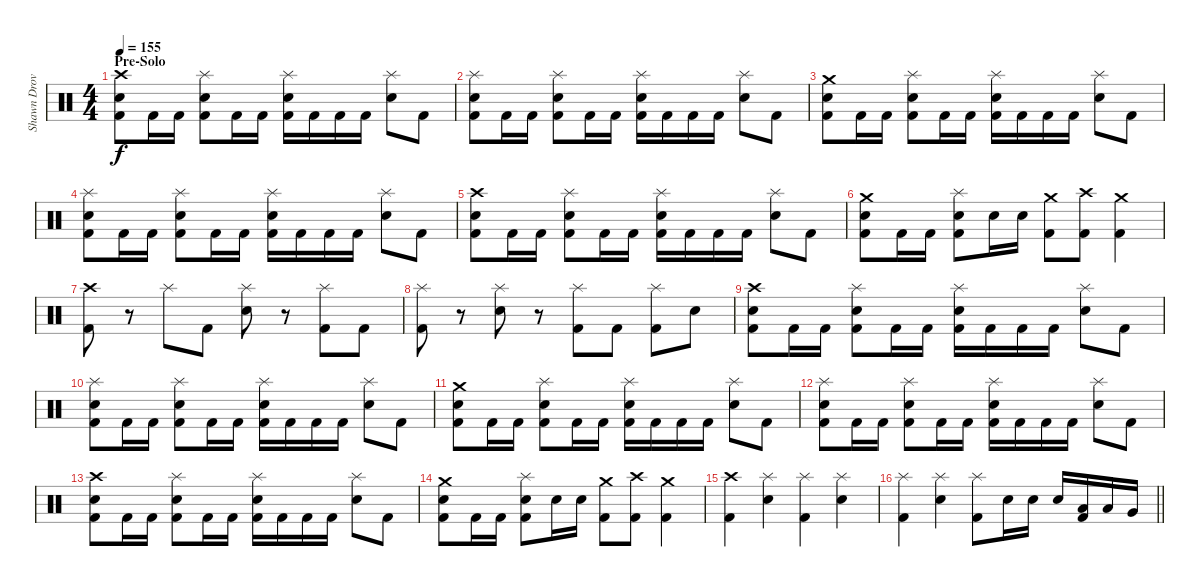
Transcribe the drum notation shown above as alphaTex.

\track ("Shawn Drover" "Shawn Drov") {instrument percussion}
\staff {score}
\articulation defaults
\ts (4 4)
\section ("" "Pre-Solo")
\tempo 155
\clef neutral
\ks c
("Crash high (hit)" "Snare (hit) 2" "Kick (hit) 2").8{dy f} "Kick (hit) 2".16 "Kick (hit) 2".16 ("Splash (hit)" "Snare (hit) 2" "Kick (hit) 2").8 "Kick (hit) 2".16 "Kick (hit) 2".16 ("Splash (hit)" "Snare (hit) 2" "Kick (hit) 2").16 "Kick (hit) 2".16 "Kick (hit) 2".16 "Kick (hit) 2".16 ("Splash (hit)" "Snare (hit) 2").8 "Kick (hit) 2".8 |
("Splash (hit)" "Snare (hit) 2" "Kick (hit) 2").8 "Kick (hit) 2".16 "Kick (hit) 2".16 ("Splash (hit)" "Snare (hit) 2" "Kick (hit) 2").8 "Kick (hit) 2".16 "Kick (hit) 2".16 ("Splash (hit)" "Snare (hit) 2" "Kick (hit) 2").16 "Kick (hit) 2".16 "Kick (hit) 2".16 "Kick (hit) 2".16 ("Splash (hit)" "Snare (hit) 2").8 "Kick (hit) 2".8 |
("Crash medium (hit)" "Snare (hit) 2" "Kick (hit) 2").8 "Kick (hit) 2".16 "Kick (hit) 2".16 ("Splash (hit)" "Snare (hit) 2" "Kick (hit) 2").8 "Kick (hit) 2".16 "Kick (hit) 2".16 ("Splash (hit)" "Snare (hit) 2" "Kick (hit) 2").16 "Kick (hit) 2".16 "Kick (hit) 2".16 "Kick (hit) 2".16 ("Splash (hit)" "Snare (hit) 2").8 "Kick (hit) 2".8 |
("Splash (hit)" "Snare (hit) 2" "Kick (hit) 2").8 "Kick (hit) 2".16 "Kick (hit) 2".16 ("Splash (hit)" "Snare (hit) 2" "Kick (hit) 2").8 "Kick (hit) 2".16 "Kick (hit) 2".16 ("Splash (hit)" "Snare (hit) 2" "Kick (hit) 2").16 "Kick (hit) 2".16 "Kick (hit) 2".16 "Kick (hit) 2".16 ("Splash (hit)" "Snare (hit) 2").8 "Kick (hit) 2".8 |
("Crash high (hit)" "Snare (hit) 2" "Kick (hit) 2").8 "Kick (hit) 2".16 "Kick (hit) 2".16 ("Splash (hit)" "Snare (hit) 2" "Kick (hit) 2").8 "Kick (hit) 2".16 "Kick (hit) 2".16 ("Splash (hit)" "Snare (hit) 2" "Kick (hit) 2").16 "Kick (hit) 2".16 "Kick (hit) 2".16 "Kick (hit) 2".16 ("Splash (hit)" "Snare (hit) 2").8 "Kick (hit) 2".8 |
("Crash medium (hit)" "Snare (hit) 2" "Kick (hit) 2").8 "Kick (hit) 2".16 "Kick (hit) 2".16 ("Splash (hit)" "Snare (hit) 2" "Kick (hit) 2").8 "Snare (hit) 2".16 "Snare (hit) 2".16 ("Crash medium (hit)" "Kick (hit) 2").8 ("Crash high (hit)" "Kick (hit) 2").8 ("Crash medium (hit)" "Kick (hit) 2").4 |
("Crash high (hit)" "Kick (hit) 2").8 r.8 "Splash (hit)".8 "Kick (hit) 2".8 ("Splash (hit)" "Snare (hit) 2").8 r.8 ("Splash (hit)" "Kick (hit) 2").8 "Kick (hit) 2".8 |
("Splash (hit)" "Kick (hit) 2").8 r.8 ("Splash (hit)" "Snare (hit) 2").8 r.8 ("Splash (hit)" "Kick (hit) 2").8 "Kick (hit) 2".8 ("Splash (hit)" "Kick (hit) 2").8 "Snare (hit) 2".8 |
("Crash high (hit)" "Snare (hit) 2" "Kick (hit) 2").8 "Kick (hit) 2".16 "Kick (hit) 2".16 ("Splash (hit)" "Snare (hit) 2" "Kick (hit) 2").8 "Kick (hit) 2".16 "Kick (hit) 2".16 ("Splash (hit)" "Snare (hit) 2" "Kick (hit) 2").16 "Kick (hit) 2".16 "Kick (hit) 2".16 "Kick (hit) 2".16 ("Splash (hit)" "Snare (hit) 2").8 "Kick (hit) 2".8 |
("Splash (hit)" "Snare (hit) 2" "Kick (hit) 2").8 "Kick (hit) 2".16 "Kick (hit) 2".16 ("Splash (hit)" "Snare (hit) 2" "Kick (hit) 2").8 "Kick (hit) 2".16 "Kick (hit) 2".16 ("Splash (hit)" "Snare (hit) 2" "Kick (hit) 2").16 "Kick (hit) 2".16 "Kick (hit) 2".16 "Kick (hit) 2".16 ("Splash (hit)" "Snare (hit) 2").8 "Kick (hit) 2".8 |
("Crash medium (hit)" "Snare (hit) 2" "Kick (hit) 2").8 "Kick (hit) 2".16 "Kick (hit) 2".16 ("Splash (hit)" "Snare (hit) 2" "Kick (hit) 2").8 "Kick (hit) 2".16 "Kick (hit) 2".16 ("Splash (hit)" "Snare (hit) 2" "Kick (hit) 2").16 "Kick (hit) 2".16 "Kick (hit) 2".16 "Kick (hit) 2".16 ("Splash (hit)" "Snare (hit) 2").8 "Kick (hit) 2".8 |
("Splash (hit)" "Snare (hit) 2" "Kick (hit) 2").8 "Kick (hit) 2".16 "Kick (hit) 2".16 ("Splash (hit)" "Snare (hit) 2" "Kick (hit) 2").8 "Kick (hit) 2".16 "Kick (hit) 2".16 ("Splash (hit)" "Snare (hit) 2" "Kick (hit) 2").16 "Kick (hit) 2".16 "Kick (hit) 2".16 "Kick (hit) 2".16 ("Splash (hit)" "Snare (hit) 2").8 "Kick (hit) 2".8 |
("Crash high (hit)" "Snare (hit) 2" "Kick (hit) 2").8 "Kick (hit) 2".16 "Kick (hit) 2".16 ("Splash (hit)" "Snare (hit) 2" "Kick (hit) 2").8 "Kick (hit) 2".16 "Kick (hit) 2".16 ("Splash (hit)" "Snare (hit) 2" "Kick (hit) 2").16 "Kick (hit) 2".16 "Kick (hit) 2".16 "Kick (hit) 2".16 ("Splash (hit)" "Snare (hit) 2").8 "Kick (hit) 2".8 |
("Crash medium (hit)" "Snare (hit) 2" "Kick (hit) 2").8 "Kick (hit) 2".16 "Kick (hit) 2".16 ("Splash (hit)" "Snare (hit) 2" "Kick (hit) 2").8 "Snare (hit) 2".16 "Snare (hit) 2".16 ("Crash medium (hit)" "Kick (hit) 2").8 ("Crash high (hit)" "Kick (hit) 2").8 ("Crash medium (hit)" "Kick (hit) 2").4 |
("Crash high (hit)" "Kick (hit) 2").4 ("Splash (hit)" "Snare (hit) 2").4 ("Splash (hit)" "Kick (hit) 2").4 ("Splash (hit)" "Snare (hit) 2").4 |
\barLineRight lightlight
("Splash (hit)" "Kick (hit) 2").4 ("Splash (hit)" "Snare (hit) 2").4 ("Splash (hit)" "Kick (hit) 2").8 "Snare (hit) 2".16 "Snare (hit) 2".16 "Snare (hit) 2".16 ("Low Tom (hit)" "Kick (hit) 2").16 "Low Tom (hit)".16 "Very Low Tom (hit)".16
